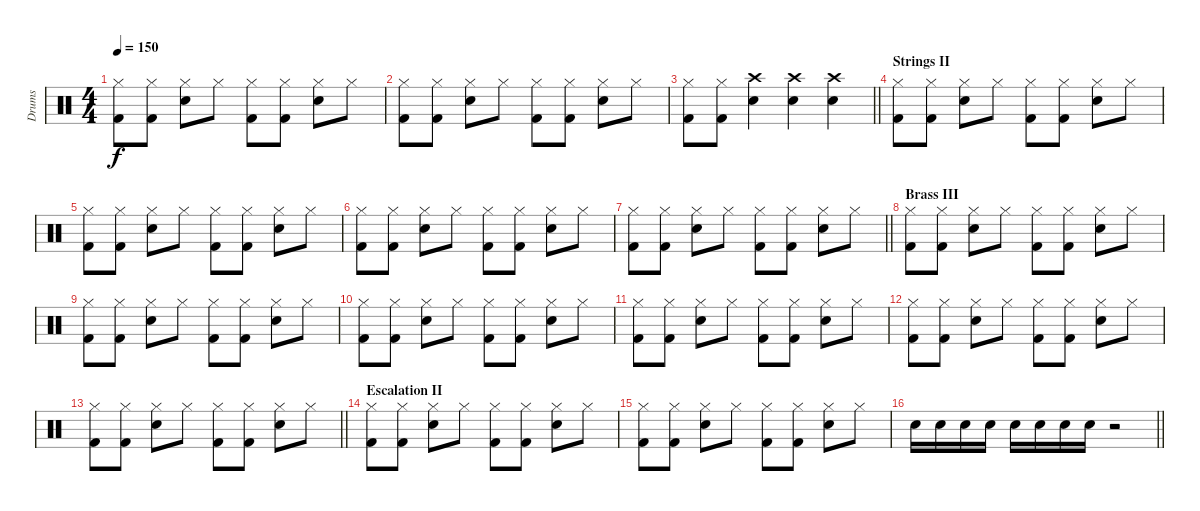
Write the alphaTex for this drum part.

\track ("Drums" "Drums") {instrument percussion}
\staff {score}
\articulation defaults
\ts (4 4)
\tempo 150
\clef neutral
\ks c
("Hi-Hat (closed)" "Kick (hit) 2").8{dy f} ("Hi-Hat (closed)" "Kick (hit) 2").8 ("Hi-Hat (closed)" "Snare (hit) 2").8 "Hi-Hat (closed)".8 ("Hi-Hat (closed)" "Kick (hit) 2").8 ("Hi-Hat (closed)" "Kick (hit) 2").8 ("Hi-Hat (closed)" "Snare (hit) 2").8 "Hi-Hat (closed)".8 |
("Hi-Hat (closed)" "Kick (hit) 2").8 ("Hi-Hat (closed)" "Kick (hit) 2").8 ("Hi-Hat (closed)" "Snare (hit) 2").8 "Hi-Hat (closed)".8 ("Hi-Hat (closed)" "Kick (hit) 2").8 ("Hi-Hat (closed)" "Kick (hit) 2").8 ("Hi-Hat (closed)" "Snare (hit) 2").8 "Hi-Hat (closed)".8 |
\barLineRight lightlight
("Hi-Hat (closed)" "Kick (hit) 2").8 ("Hi-Hat (closed)" "Kick (hit) 2").8 ("Crash high (hit)" "Snare (hit) 2").4 ("Crash high (hit)" "Snare (hit) 2").4 ("Crash high (hit)" "Snare (hit) 2").4 |
\section ("" "Strings II")
("Hi-Hat (closed)" "Kick (hit) 2").8 ("Hi-Hat (closed)" "Kick (hit) 2").8 ("Hi-Hat (closed)" "Snare (hit) 2").8 "Hi-Hat (closed)".8 ("Hi-Hat (closed)" "Kick (hit) 2").8 ("Hi-Hat (closed)" "Kick (hit) 2").8 ("Hi-Hat (closed)" "Snare (hit) 2").8 "Hi-Hat (closed)".8 |
("Hi-Hat (closed)" "Kick (hit) 2").8 ("Hi-Hat (closed)" "Kick (hit) 2").8 ("Hi-Hat (closed)" "Snare (hit) 2").8 "Hi-Hat (closed)".8 ("Hi-Hat (closed)" "Kick (hit) 2").8 ("Hi-Hat (closed)" "Kick (hit) 2").8 ("Hi-Hat (closed)" "Snare (hit) 2").8 "Hi-Hat (closed)".8 |
("Hi-Hat (closed)" "Kick (hit) 2").8 ("Hi-Hat (closed)" "Kick (hit) 2").8 ("Hi-Hat (closed)" "Snare (hit) 2").8 "Hi-Hat (closed)".8 ("Hi-Hat (closed)" "Kick (hit) 2").8 ("Hi-Hat (closed)" "Kick (hit) 2").8 ("Hi-Hat (closed)" "Snare (hit) 2").8 "Hi-Hat (closed)".8 |
\barLineRight lightlight
("Hi-Hat (closed)" "Kick (hit) 2").8 ("Hi-Hat (closed)" "Kick (hit) 2").8 ("Hi-Hat (closed)" "Snare (hit) 2").8 "Hi-Hat (closed)".8 ("Hi-Hat (closed)" "Kick (hit) 2").8 ("Hi-Hat (closed)" "Kick (hit) 2").8 ("Hi-Hat (closed)" "Snare (hit) 2").8 "Hi-Hat (closed)".8 |
\section ("" "Brass III")
("Hi-Hat (closed)" "Kick (hit) 2").8 ("Hi-Hat (closed)" "Kick (hit) 2").8 ("Hi-Hat (closed)" "Snare (hit) 2").8 "Hi-Hat (closed)".8 ("Hi-Hat (closed)" "Kick (hit) 2").8 ("Hi-Hat (closed)" "Kick (hit) 2").8 ("Hi-Hat (closed)" "Snare (hit) 2").8 "Hi-Hat (closed)".8 |
("Hi-Hat (closed)" "Kick (hit) 2").8 ("Hi-Hat (closed)" "Kick (hit) 2").8 ("Hi-Hat (closed)" "Snare (hit) 2").8 "Hi-Hat (closed)".8 ("Hi-Hat (closed)" "Kick (hit) 2").8 ("Hi-Hat (closed)" "Kick (hit) 2").8 ("Hi-Hat (closed)" "Snare (hit) 2").8 "Hi-Hat (closed)".8 |
("Hi-Hat (closed)" "Kick (hit) 2").8 ("Hi-Hat (closed)" "Kick (hit) 2").8 ("Hi-Hat (closed)" "Snare (hit) 2").8 "Hi-Hat (closed)".8 ("Hi-Hat (closed)" "Kick (hit) 2").8 ("Hi-Hat (closed)" "Kick (hit) 2").8 ("Hi-Hat (closed)" "Snare (hit) 2").8 "Hi-Hat (closed)".8 |
("Hi-Hat (closed)" "Kick (hit) 2").8 ("Hi-Hat (closed)" "Kick (hit) 2").8 ("Hi-Hat (closed)" "Snare (hit) 2").8 "Hi-Hat (closed)".8 ("Hi-Hat (closed)" "Kick (hit) 2").8 ("Hi-Hat (closed)" "Kick (hit) 2").8 ("Hi-Hat (closed)" "Snare (hit) 2").8 "Hi-Hat (closed)".8 |
("Hi-Hat (closed)" "Kick (hit) 2").8 ("Hi-Hat (closed)" "Kick (hit) 2").8 ("Hi-Hat (closed)" "Snare (hit) 2").8 "Hi-Hat (closed)".8 ("Hi-Hat (closed)" "Kick (hit) 2").8 ("Hi-Hat (closed)" "Kick (hit) 2").8 ("Hi-Hat (closed)" "Snare (hit) 2").8 "Hi-Hat (closed)".8 |
\barLineRight lightlight
("Hi-Hat (closed)" "Kick (hit) 2").8 ("Hi-Hat (closed)" "Kick (hit) 2").8 ("Hi-Hat (closed)" "Snare (hit) 2").8 "Hi-Hat (closed)".8 ("Hi-Hat (closed)" "Kick (hit) 2").8 ("Hi-Hat (closed)" "Kick (hit) 2").8 ("Hi-Hat (closed)" "Snare (hit) 2").8 "Hi-Hat (closed)".8 |
\section ("" "Escalation II")
("Hi-Hat (closed)" "Kick (hit) 2").8 ("Hi-Hat (closed)" "Kick (hit) 2").8 ("Hi-Hat (closed)" "Snare (hit) 2").8 "Hi-Hat (closed)".8 ("Hi-Hat (closed)" "Kick (hit) 2").8 ("Hi-Hat (closed)" "Kick (hit) 2").8 ("Hi-Hat (closed)" "Snare (hit) 2").8 "Hi-Hat (closed)".8 |
("Hi-Hat (closed)" "Kick (hit) 2").8 ("Hi-Hat (closed)" "Kick (hit) 2").8 ("Hi-Hat (closed)" "Snare (hit) 2").8 "Hi-Hat (closed)".8 ("Hi-Hat (closed)" "Kick (hit) 2").8 ("Hi-Hat (closed)" "Kick (hit) 2").8 ("Hi-Hat (closed)" "Snare (hit) 2").8 "Hi-Hat (closed)".8 |
\barLineRight lightlight "Snare (hit) 2".16 "Snare (hit) 2".16 "Snare (hit) 2".16 "Snare (hit) 2".16 "Snare (hit) 2".16 "Snare (hit) 2".16 "Snare (hit) 2".16 "Snare (hit) 2".16
r.2
